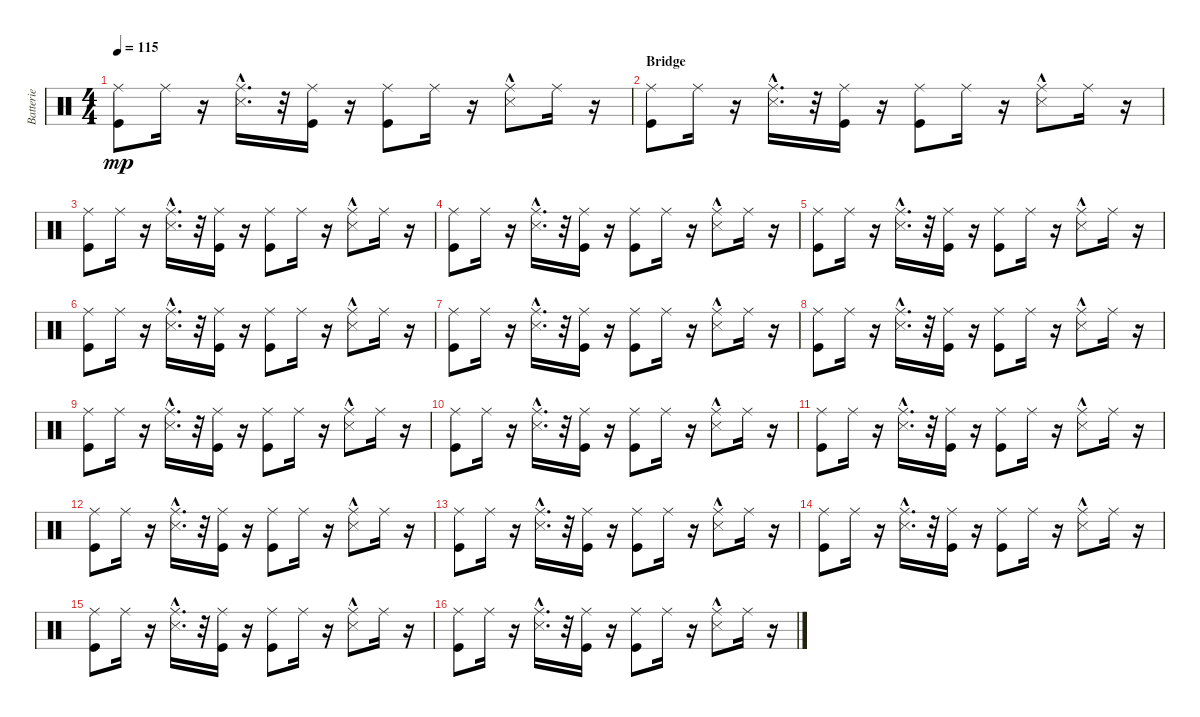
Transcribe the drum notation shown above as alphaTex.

\track ("Batterie" "Batterie") {instrument percussion}
\staff {score}
\articulation defaults
\ts (4 4)
\tempo 115
\clef neutral
\ks c
("Kick (hit)" "Ride (middle)").8{dy mp} "Ride (middle)".16 r.16 ("Snare (side stick) 3"{hac} "Ride (middle)").16{d} r.32 ("Ride (middle)" "Kick (hit)").16 r.16 ("Ride (middle)" "Kick (hit)").8 "Ride (middle)".16 r.16 ("Snare (side stick) 3"{hac} "Ride (middle)").8 "Ride (middle)".16 r.16 |
\section ("" "Bridge")
("Kick (hit)" "Ride (middle)").8 "Ride (middle)".16 r.16 ("Snare (side stick) 3"{hac} "Ride (middle)").16{d} r.32 ("Ride (middle)" "Kick (hit)").16 r.16 ("Ride (middle)" "Kick (hit)").8 "Ride (middle)".16 r.16 ("Snare (side stick) 3"{hac} "Ride (middle)").8 "Ride (middle)".16 r.16 |
("Kick (hit)" "Ride (middle)").8 "Ride (middle)".16 r.16 ("Snare (side stick) 3"{hac} "Ride (middle)").16{d} r.32 ("Ride (middle)" "Kick (hit)").16 r.16 ("Ride (middle)" "Kick (hit)").8 "Ride (middle)".16 r.16 ("Snare (side stick) 3"{hac} "Ride (middle)").8 "Ride (middle)".16 r.16 |
("Kick (hit)" "Ride (middle)").8 "Ride (middle)".16 r.16 ("Snare (side stick) 3"{hac} "Ride (middle)").16{d} r.32 ("Ride (middle)" "Kick (hit)").16 r.16 ("Ride (middle)" "Kick (hit)").8 "Ride (middle)".16 r.16 ("Snare (side stick) 3"{hac} "Ride (middle)").8 "Ride (middle)".16 r.16 |
("Kick (hit)" "Ride (middle)").8 "Ride (middle)".16 r.16 ("Snare (side stick) 3"{hac} "Ride (middle)").16{d} r.32 ("Ride (middle)" "Kick (hit)").16 r.16 ("Ride (middle)" "Kick (hit)").8 "Ride (middle)".16 r.16 ("Snare (side stick) 3"{hac} "Ride (middle)").8 "Ride (middle)".16 r.16 |
("Kick (hit)" "Ride (middle)").8 "Ride (middle)".16 r.16 ("Snare (side stick) 3"{hac} "Ride (middle)").16{d} r.32 ("Ride (middle)" "Kick (hit)").16 r.16 ("Ride (middle)" "Kick (hit)").8 "Ride (middle)".16 r.16 ("Snare (side stick) 3"{hac} "Ride (middle)").8 "Ride (middle)".16 r.16 |
("Kick (hit)" "Ride (middle)").8 "Ride (middle)".16 r.16 ("Snare (side stick) 3"{hac} "Ride (middle)").16{d} r.32 ("Ride (middle)" "Kick (hit)").16 r.16 ("Ride (middle)" "Kick (hit)").8 "Ride (middle)".16 r.16 ("Snare (side stick) 3"{hac} "Ride (middle)").8 "Ride (middle)".16 r.16 |
("Kick (hit)" "Ride (middle)").8 "Ride (middle)".16 r.16 ("Snare (side stick) 3"{hac} "Ride (middle)").16{d} r.32 ("Ride (middle)" "Kick (hit)").16 r.16 ("Ride (middle)" "Kick (hit)").8 "Ride (middle)".16 r.16 ("Snare (side stick) 3"{hac} "Ride (middle)").8 "Ride (middle)".16 r.16 |
("Kick (hit)" "Ride (middle)").8 "Ride (middle)".16 r.16 ("Snare (side stick) 3"{hac} "Ride (middle)").16{d} r.32 ("Ride (middle)" "Kick (hit)").16 r.16 ("Ride (middle)" "Kick (hit)").8 "Ride (middle)".16 r.16 ("Snare (side stick) 3"{hac} "Ride (middle)").8 "Ride (middle)".16 r.16 |
("Kick (hit)" "Ride (middle)").8 "Ride (middle)".16 r.16 ("Snare (side stick) 3"{hac} "Ride (middle)").16{d} r.32 ("Ride (middle)" "Kick (hit)").16 r.16 ("Ride (middle)" "Kick (hit)").8 "Ride (middle)".16 r.16 ("Snare (side stick) 3"{hac} "Ride (middle)").8 "Ride (middle)".16 r.16 |
("Kick (hit)" "Ride (middle)").8 "Ride (middle)".16 r.16 ("Snare (side stick) 3"{hac} "Ride (middle)").16{d} r.32 ("Ride (middle)" "Kick (hit)").16 r.16 ("Ride (middle)" "Kick (hit)").8 "Ride (middle)".16 r.16 ("Snare (side stick) 3"{hac} "Ride (middle)").8 "Ride (middle)".16 r.16 |
("Kick (hit)" "Ride (middle)").8 "Ride (middle)".16 r.16 ("Snare (side stick) 3"{hac} "Ride (middle)").16{d} r.32 ("Ride (middle)" "Kick (hit)").16 r.16 ("Ride (middle)" "Kick (hit)").8 "Ride (middle)".16 r.16 ("Snare (side stick) 3"{hac} "Ride (middle)").8 "Ride (middle)".16 r.16 |
("Kick (hit)" "Ride (middle)").8 "Ride (middle)".16 r.16 ("Snare (side stick) 3"{hac} "Ride (middle)").16{d} r.32 ("Ride (middle)" "Kick (hit)").16 r.16 ("Ride (middle)" "Kick (hit)").8 "Ride (middle)".16 r.16 ("Snare (side stick) 3"{hac} "Ride (middle)").8 "Ride (middle)".16 r.16 |
("Kick (hit)" "Ride (middle)").8 "Ride (middle)".16 r.16 ("Snare (side stick) 3"{hac} "Ride (middle)").16{d} r.32 ("Ride (middle)" "Kick (hit)").16 r.16 ("Ride (middle)" "Kick (hit)").8 "Ride (middle)".16 r.16 ("Snare (side stick) 3"{hac} "Ride (middle)").8 "Ride (middle)".16 r.16 |
("Kick (hit)" "Ride (middle)").8 "Ride (middle)".16 r.16 ("Snare (side stick) 3"{hac} "Ride (middle)").16{d} r.32 ("Ride (middle)" "Kick (hit)").16 r.16 ("Ride (middle)" "Kick (hit)").8 "Ride (middle)".16 r.16 ("Snare (side stick) 3"{hac} "Ride (middle)").8 "Ride (middle)".16 r.16 |
("Kick (hit)" "Ride (middle)").8 "Ride (middle)".16 r.16 ("Snare (side stick) 3"{hac} "Ride (middle)").16{d} r.32 ("Ride (middle)" "Kick (hit)").16 r.16 ("Ride (middle)" "Kick (hit)").8 "Ride (middle)".16 r.16 ("Snare (side stick) 3"{hac} "Ride (middle)").8 "Ride (middle)".16 r.16
